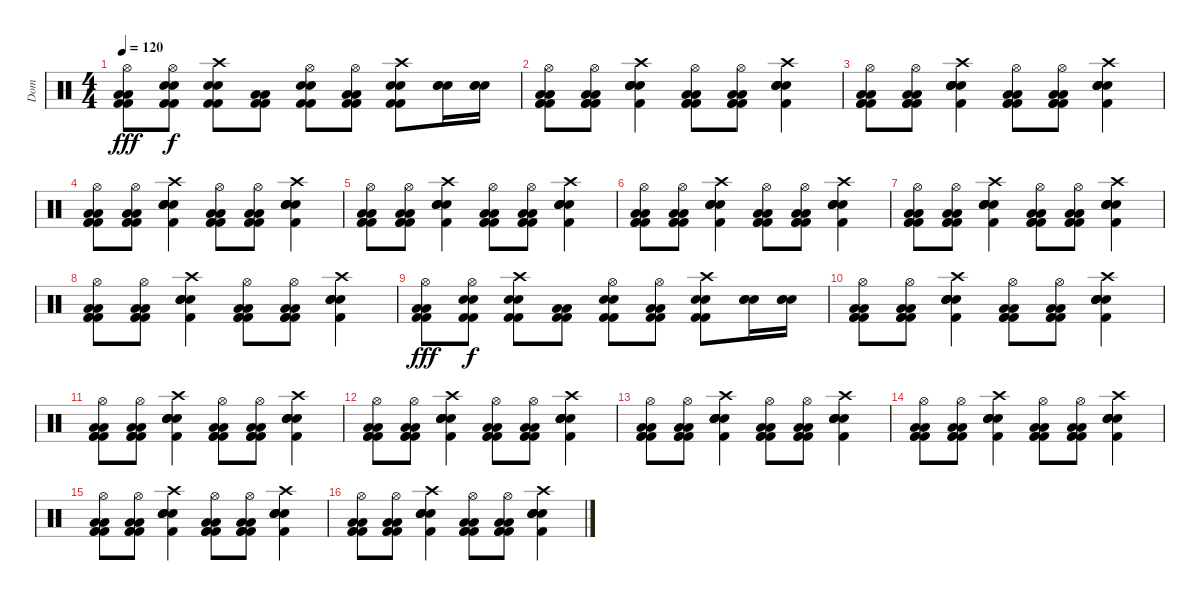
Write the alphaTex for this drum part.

\track ("Dom" "Dom") {instrument percussion}
\staff {score}
\articulation defaults
\ts (4 4)
\tempo 120
\clef neutral
\ks c
("Hi-Hat (open)" "Low Floor Tom (hit)" "Low Floor Tom (hit)" "Kick (hit) 2" "Kick (hit) 2").8{dy fff} ("Hi-Hat (open)" "Electric Snare (hit)" "Electric Snare (hit)" "Kick (hit) 2" "Kick (hit) 2").8{dy f} ("Crash high (hit)" "Electric Snare (hit)" "Electric Snare (hit)" "Kick (hit) 2" "Kick (hit) 2").8 ("Low Floor Tom (hit)" "Low Floor Tom (hit)" "Kick (hit) 2" "Kick (hit) 2").8 ("Hi-Hat (open)" "Electric Snare (hit)" "Electric Snare (hit)" "Kick (hit) 2" "Kick (hit) 2").8 ("Hi-Hat (open)" "Low Floor Tom (hit)" "Low Floor Tom (hit)" "Kick (hit) 2" "Kick (hit) 2").8 ("Crash high (hit)" "Electric Snare (hit)" "Electric Snare (hit)" "Kick (hit) 2" "Kick (hit) 2").8 ("Electric Snare (hit)" "Electric Snare (hit)" "Electric Snare (hit)").16 ("Electric Snare (hit)" "Electric Snare (hit)" "Electric Snare (hit)").16 |
("Hi-Hat (open)" "Low Floor Tom (hit)" "Low Floor Tom (hit)" "Kick (hit) 2" "Kick (hit) 2" "Kick (hit) 2").8 ("Hi-Hat (open)" "Low Floor Tom (hit)" "Low Floor Tom (hit)" "Kick (hit) 2" "Kick (hit) 2" "Kick (hit) 2").8 ("Crash high (hit)" "Electric Snare (hit)" "Electric Snare (hit)" "Electric Snare (hit)" "Electric Snare (hit)" "Kick (hit) 2").4 ("Hi-Hat (open)" "Low Floor Tom (hit)" "Low Floor Tom (hit)" "Kick (hit) 2" "Kick (hit) 2" "Kick (hit) 2").8 ("Hi-Hat (open)" "Low Floor Tom (hit)" "Low Floor Tom (hit)" "Kick (hit) 2" "Kick (hit) 2" "Kick (hit) 2").8 ("Crash high (hit)" "Electric Snare (hit)" "Electric Snare (hit)" "Electric Snare (hit)" "Electric Snare (hit)" "Kick (hit) 2").4 |
("Hi-Hat (open)" "Low Floor Tom (hit)" "Low Floor Tom (hit)" "Kick (hit) 2" "Kick (hit) 2" "Kick (hit) 2").8 ("Hi-Hat (open)" "Low Floor Tom (hit)" "Low Floor Tom (hit)" "Kick (hit) 2" "Kick (hit) 2" "Kick (hit) 2").8 ("Crash high (hit)" "Electric Snare (hit)" "Electric Snare (hit)" "Electric Snare (hit)" "Electric Snare (hit)" "Kick (hit) 2").4 ("Hi-Hat (open)" "Low Floor Tom (hit)" "Low Floor Tom (hit)" "Kick (hit) 2" "Kick (hit) 2" "Kick (hit) 2").8 ("Hi-Hat (open)" "Low Floor Tom (hit)" "Low Floor Tom (hit)" "Kick (hit) 2" "Kick (hit) 2" "Kick (hit) 2").8 ("Crash high (hit)" "Electric Snare (hit)" "Electric Snare (hit)" "Electric Snare (hit)" "Electric Snare (hit)" "Kick (hit) 2").4 |
("Hi-Hat (open)" "Low Floor Tom (hit)" "Low Floor Tom (hit)" "Kick (hit) 2" "Kick (hit) 2" "Kick (hit) 2").8 ("Hi-Hat (open)" "Low Floor Tom (hit)" "Low Floor Tom (hit)" "Kick (hit) 2" "Kick (hit) 2" "Kick (hit) 2").8 ("Crash high (hit)" "Electric Snare (hit)" "Electric Snare (hit)" "Electric Snare (hit)" "Electric Snare (hit)" "Kick (hit) 2").4 ("Hi-Hat (open)" "Low Floor Tom (hit)" "Low Floor Tom (hit)" "Kick (hit) 2" "Kick (hit) 2" "Kick (hit) 2").8 ("Hi-Hat (open)" "Low Floor Tom (hit)" "Low Floor Tom (hit)" "Kick (hit) 2" "Kick (hit) 2" "Kick (hit) 2").8 ("Crash high (hit)" "Electric Snare (hit)" "Electric Snare (hit)" "Electric Snare (hit)" "Electric Snare (hit)" "Kick (hit) 2").4 |
("Hi-Hat (open)" "Low Floor Tom (hit)" "Low Floor Tom (hit)" "Kick (hit) 2" "Kick (hit) 2" "Kick (hit) 2").8 ("Hi-Hat (open)" "Low Floor Tom (hit)" "Low Floor Tom (hit)" "Kick (hit) 2" "Kick (hit) 2" "Kick (hit) 2").8 ("Crash high (hit)" "Electric Snare (hit)" "Electric Snare (hit)" "Electric Snare (hit)" "Electric Snare (hit)" "Kick (hit) 2").4 ("Hi-Hat (open)" "Low Floor Tom (hit)" "Low Floor Tom (hit)" "Kick (hit) 2" "Kick (hit) 2" "Kick (hit) 2").8 ("Hi-Hat (open)" "Low Floor Tom (hit)" "Low Floor Tom (hit)" "Kick (hit) 2" "Kick (hit) 2" "Kick (hit) 2").8 ("Crash high (hit)" "Electric Snare (hit)" "Electric Snare (hit)" "Electric Snare (hit)" "Electric Snare (hit)" "Kick (hit) 2").4 |
("Hi-Hat (open)" "Low Floor Tom (hit)" "Low Floor Tom (hit)" "Kick (hit) 2" "Kick (hit) 2" "Kick (hit) 2").8 ("Hi-Hat (open)" "Low Floor Tom (hit)" "Low Floor Tom (hit)" "Kick (hit) 2" "Kick (hit) 2" "Kick (hit) 2").8 ("Crash high (hit)" "Electric Snare (hit)" "Electric Snare (hit)" "Electric Snare (hit)" "Electric Snare (hit)" "Kick (hit) 2").4 ("Hi-Hat (open)" "Low Floor Tom (hit)" "Low Floor Tom (hit)" "Kick (hit) 2" "Kick (hit) 2" "Kick (hit) 2").8 ("Hi-Hat (open)" "Low Floor Tom (hit)" "Low Floor Tom (hit)" "Kick (hit) 2" "Kick (hit) 2" "Kick (hit) 2").8 ("Crash high (hit)" "Electric Snare (hit)" "Electric Snare (hit)" "Electric Snare (hit)" "Electric Snare (hit)" "Kick (hit) 2").4 |
("Hi-Hat (open)" "Low Floor Tom (hit)" "Low Floor Tom (hit)" "Kick (hit) 2" "Kick (hit) 2" "Kick (hit) 2").8 ("Hi-Hat (open)" "Low Floor Tom (hit)" "Low Floor Tom (hit)" "Kick (hit) 2" "Kick (hit) 2" "Kick (hit) 2").8 ("Crash high (hit)" "Electric Snare (hit)" "Electric Snare (hit)" "Electric Snare (hit)" "Electric Snare (hit)" "Kick (hit) 2").4 ("Hi-Hat (open)" "Low Floor Tom (hit)" "Low Floor Tom (hit)" "Kick (hit) 2" "Kick (hit) 2" "Kick (hit) 2").8 ("Hi-Hat (open)" "Low Floor Tom (hit)" "Low Floor Tom (hit)" "Kick (hit) 2" "Kick (hit) 2" "Kick (hit) 2").8 ("Crash high (hit)" "Electric Snare (hit)" "Electric Snare (hit)" "Electric Snare (hit)" "Electric Snare (hit)" "Kick (hit) 2").4 |
("Hi-Hat (open)" "Low Floor Tom (hit)" "Low Floor Tom (hit)" "Kick (hit) 2" "Kick (hit) 2" "Kick (hit) 2").8 ("Hi-Hat (open)" "Low Floor Tom (hit)" "Low Floor Tom (hit)" "Kick (hit) 2" "Kick (hit) 2" "Kick (hit) 2").8 ("Crash high (hit)" "Electric Snare (hit)" "Electric Snare (hit)" "Electric Snare (hit)" "Electric Snare (hit)" "Kick (hit) 2").4 ("Hi-Hat (open)" "Low Floor Tom (hit)" "Low Floor Tom (hit)" "Kick (hit) 2" "Kick (hit) 2" "Kick (hit) 2").8 ("Hi-Hat (open)" "Low Floor Tom (hit)" "Low Floor Tom (hit)" "Kick (hit) 2" "Kick (hit) 2" "Kick (hit) 2").8 ("Crash high (hit)" "Electric Snare (hit)" "Electric Snare (hit)" "Electric Snare (hit)" "Electric Snare (hit)" "Kick (hit) 2").4 |
("Hi-Hat (open)" "Low Floor Tom (hit)" "Low Floor Tom (hit)" "Kick (hit) 2" "Kick (hit) 2").8{dy fff} ("Hi-Hat (open)" "Electric Snare (hit)" "Electric Snare (hit)" "Kick (hit) 2" "Kick (hit) 2").8{dy f} ("Crash high (hit)" "Electric Snare (hit)" "Electric Snare (hit)" "Kick (hit) 2" "Kick (hit) 2").8 ("Low Floor Tom (hit)" "Low Floor Tom (hit)" "Kick (hit) 2" "Kick (hit) 2").8 ("Hi-Hat (open)" "Electric Snare (hit)" "Electric Snare (hit)" "Kick (hit) 2" "Kick (hit) 2").8 ("Hi-Hat (open)" "Low Floor Tom (hit)" "Low Floor Tom (hit)" "Kick (hit) 2" "Kick (hit) 2").8 ("Crash high (hit)" "Electric Snare (hit)" "Electric Snare (hit)" "Kick (hit) 2" "Kick (hit) 2").8 ("Electric Snare (hit)" "Electric Snare (hit)" "Electric Snare (hit)").16 ("Electric Snare (hit)" "Electric Snare (hit)" "Electric Snare (hit)").16 |
("Hi-Hat (open)" "Low Floor Tom (hit)" "Low Floor Tom (hit)" "Kick (hit) 2" "Kick (hit) 2" "Kick (hit) 2").8 ("Hi-Hat (open)" "Low Floor Tom (hit)" "Low Floor Tom (hit)" "Kick (hit) 2" "Kick (hit) 2" "Kick (hit) 2").8 ("Crash high (hit)" "Electric Snare (hit)" "Electric Snare (hit)" "Electric Snare (hit)" "Electric Snare (hit)" "Kick (hit) 2").4 ("Hi-Hat (open)" "Low Floor Tom (hit)" "Low Floor Tom (hit)" "Kick (hit) 2" "Kick (hit) 2" "Kick (hit) 2").8 ("Hi-Hat (open)" "Low Floor Tom (hit)" "Low Floor Tom (hit)" "Kick (hit) 2" "Kick (hit) 2" "Kick (hit) 2").8 ("Crash high (hit)" "Electric Snare (hit)" "Electric Snare (hit)" "Electric Snare (hit)" "Electric Snare (hit)" "Kick (hit) 2").4 |
("Hi-Hat (open)" "Low Floor Tom (hit)" "Low Floor Tom (hit)" "Kick (hit) 2" "Kick (hit) 2" "Kick (hit) 2").8 ("Hi-Hat (open)" "Low Floor Tom (hit)" "Low Floor Tom (hit)" "Kick (hit) 2" "Kick (hit) 2" "Kick (hit) 2").8 ("Crash high (hit)" "Electric Snare (hit)" "Electric Snare (hit)" "Electric Snare (hit)" "Electric Snare (hit)" "Kick (hit) 2").4 ("Hi-Hat (open)" "Low Floor Tom (hit)" "Low Floor Tom (hit)" "Kick (hit) 2" "Kick (hit) 2" "Kick (hit) 2").8 ("Hi-Hat (open)" "Low Floor Tom (hit)" "Low Floor Tom (hit)" "Kick (hit) 2" "Kick (hit) 2" "Kick (hit) 2").8 ("Crash high (hit)" "Electric Snare (hit)" "Electric Snare (hit)" "Electric Snare (hit)" "Electric Snare (hit)" "Kick (hit) 2").4 |
("Hi-Hat (open)" "Low Floor Tom (hit)" "Low Floor Tom (hit)" "Kick (hit) 2" "Kick (hit) 2" "Kick (hit) 2").8 ("Hi-Hat (open)" "Low Floor Tom (hit)" "Low Floor Tom (hit)" "Kick (hit) 2" "Kick (hit) 2" "Kick (hit) 2").8 ("Crash high (hit)" "Electric Snare (hit)" "Electric Snare (hit)" "Electric Snare (hit)" "Electric Snare (hit)" "Kick (hit) 2").4 ("Hi-Hat (open)" "Low Floor Tom (hit)" "Low Floor Tom (hit)" "Kick (hit) 2" "Kick (hit) 2" "Kick (hit) 2").8 ("Hi-Hat (open)" "Low Floor Tom (hit)" "Low Floor Tom (hit)" "Kick (hit) 2" "Kick (hit) 2" "Kick (hit) 2").8 ("Crash high (hit)" "Electric Snare (hit)" "Electric Snare (hit)" "Electric Snare (hit)" "Electric Snare (hit)" "Kick (hit) 2").4 |
("Hi-Hat (open)" "Low Floor Tom (hit)" "Low Floor Tom (hit)" "Kick (hit) 2" "Kick (hit) 2" "Kick (hit) 2").8 ("Hi-Hat (open)" "Low Floor Tom (hit)" "Low Floor Tom (hit)" "Kick (hit) 2" "Kick (hit) 2" "Kick (hit) 2").8 ("Crash high (hit)" "Electric Snare (hit)" "Electric Snare (hit)" "Electric Snare (hit)" "Electric Snare (hit)" "Kick (hit) 2").4 ("Hi-Hat (open)" "Low Floor Tom (hit)" "Low Floor Tom (hit)" "Kick (hit) 2" "Kick (hit) 2" "Kick (hit) 2").8 ("Hi-Hat (open)" "Low Floor Tom (hit)" "Low Floor Tom (hit)" "Kick (hit) 2" "Kick (hit) 2" "Kick (hit) 2").8 ("Crash high (hit)" "Electric Snare (hit)" "Electric Snare (hit)" "Electric Snare (hit)" "Electric Snare (hit)" "Kick (hit) 2").4 |
("Hi-Hat (open)" "Low Floor Tom (hit)" "Low Floor Tom (hit)" "Kick (hit) 2" "Kick (hit) 2" "Kick (hit) 2").8 ("Hi-Hat (open)" "Low Floor Tom (hit)" "Low Floor Tom (hit)" "Kick (hit) 2" "Kick (hit) 2" "Kick (hit) 2").8 ("Crash high (hit)" "Electric Snare (hit)" "Electric Snare (hit)" "Electric Snare (hit)" "Electric Snare (hit)" "Kick (hit) 2").4 ("Hi-Hat (open)" "Low Floor Tom (hit)" "Low Floor Tom (hit)" "Kick (hit) 2" "Kick (hit) 2" "Kick (hit) 2").8 ("Hi-Hat (open)" "Low Floor Tom (hit)" "Low Floor Tom (hit)" "Kick (hit) 2" "Kick (hit) 2" "Kick (hit) 2").8 ("Crash high (hit)" "Electric Snare (hit)" "Electric Snare (hit)" "Electric Snare (hit)" "Electric Snare (hit)" "Kick (hit) 2").4 |
("Hi-Hat (open)" "Low Floor Tom (hit)" "Low Floor Tom (hit)" "Kick (hit) 2" "Kick (hit) 2" "Kick (hit) 2").8 ("Hi-Hat (open)" "Low Floor Tom (hit)" "Low Floor Tom (hit)" "Kick (hit) 2" "Kick (hit) 2" "Kick (hit) 2").8 ("Crash high (hit)" "Electric Snare (hit)" "Electric Snare (hit)" "Electric Snare (hit)" "Electric Snare (hit)" "Kick (hit) 2").4 ("Hi-Hat (open)" "Low Floor Tom (hit)" "Low Floor Tom (hit)" "Kick (hit) 2" "Kick (hit) 2" "Kick (hit) 2").8 ("Hi-Hat (open)" "Low Floor Tom (hit)" "Low Floor Tom (hit)" "Kick (hit) 2" "Kick (hit) 2" "Kick (hit) 2").8 ("Crash high (hit)" "Electric Snare (hit)" "Electric Snare (hit)" "Electric Snare (hit)" "Electric Snare (hit)" "Kick (hit) 2").4 |
("Hi-Hat (open)" "Low Floor Tom (hit)" "Low Floor Tom (hit)" "Kick (hit) 2" "Kick (hit) 2" "Kick (hit) 2").8 ("Hi-Hat (open)" "Low Floor Tom (hit)" "Low Floor Tom (hit)" "Kick (hit) 2" "Kick (hit) 2" "Kick (hit) 2").8 ("Crash high (hit)" "Electric Snare (hit)" "Electric Snare (hit)" "Electric Snare (hit)" "Electric Snare (hit)" "Kick (hit) 2").4 ("Hi-Hat (open)" "Low Floor Tom (hit)" "Low Floor Tom (hit)" "Kick (hit) 2" "Kick (hit) 2" "Kick (hit) 2").8 ("Hi-Hat (open)" "Low Floor Tom (hit)" "Low Floor Tom (hit)" "Kick (hit) 2" "Kick (hit) 2" "Kick (hit) 2").8 ("Crash high (hit)" "Electric Snare (hit)" "Electric Snare (hit)" "Electric Snare (hit)" "Electric Snare (hit)" "Kick (hit) 2").4
